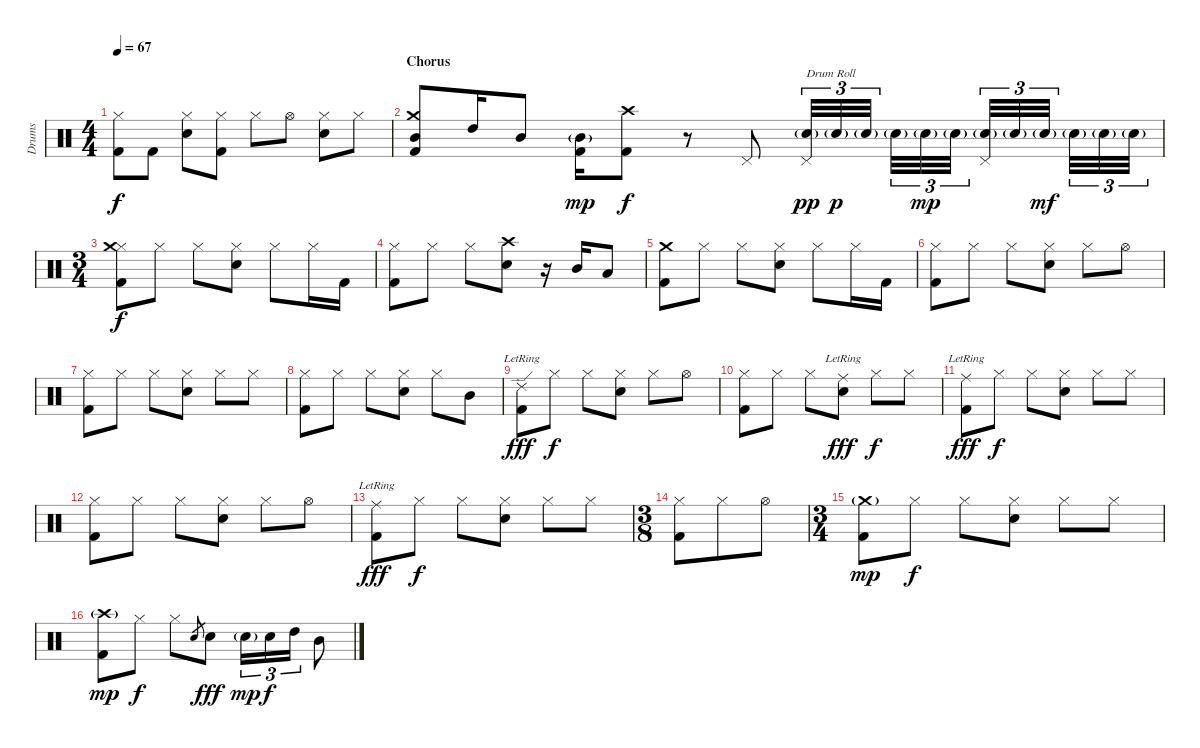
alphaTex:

\track ("Drums" "Drums") {instrument percussion}
\staff {score}
\articulation defaults
\ts (4 4)
\tempo 67
\clef neutral
\ks c
("Hi-Hat (closed)" "Kick (hit) 2").8{dy f} "Kick (hit) 2".8 ("Hi-Hat (closed)" "Snare (hit) 2").8 ("Hi-Hat (closed)" "Kick (hit) 2").8 "Hi-Hat (closed)".8 "Hi-Hat (open)".8 ("Hi-Hat (closed)" "Snare (hit) 2").8 "Hi-Hat (closed)".8 |
\section ("" "Chorus")
("Crash medium (hit)" "Mid Tom (hit)" "Kick (hit) 2").8 "High Tom (hit)".16 "Mid Tom (hit)".8 ("Mid Tom (hit)"{g} "Kick (hit) 2").16{dy mp} ("Crash high (hit)" "Kick (hit) 2").8{dy f} r.8 "Pedal Hi-Hat (hit)".8 ("Pedal Hi-Hat (hit)" "Electric Snare (hit)"{g}).32{tu (3 2) txt "Drum Roll" dy pp} "Electric Snare (hit)"{g}.32{tu (3 2) dy p} "Electric Snare (hit)"{g}.32{tu (3 2)} "Electric Snare (hit)"{g}.32{tu (3 2)} "Electric Snare (hit)"{g}.32{tu (3 2) dy mp} "Electric Snare (hit)"{g}.32{tu (3 2)} ("Pedal Hi-Hat (hit)" "Electric Snare (hit)"{g}).32{tu (3 2)} "Electric Snare (hit)"{g}.32{tu (3 2)} "Electric Snare (hit)"{g}.32{tu (3 2) dy mf} "Electric Snare (hit)"{g}.32{tu (3 2)} "Electric Snare (hit)"{g}.32{tu (3 2)} "Electric Snare (hit)"{g}.32{tu (3 2)} |
\ts (3 4)
("Hi-Hat (closed)" "Crash medium (hit)" "Kick (hit) 2").8{dy f} "Hi-Hat (closed)".8 "Hi-Hat (closed)".8 ("Hi-Hat (closed)" "Snare (hit) 2").8 "Hi-Hat (closed)".8 "Hi-Hat (closed)".16 "Kick (hit) 2".16 |
("Hi-Hat (closed)" "Kick (hit) 2").8 "Hi-Hat (closed)".8 "Hi-Hat (closed)".8 ("Crash high (hit)" "Snare (hit) 2").8 r.16 "Mid Tom (hit)".16 "Low Tom (hit)".8 |
("Crash medium (hit)" "Kick (hit) 2").8 "Hi-Hat (closed)".8 "Hi-Hat (closed)".8 ("Hi-Hat (closed)" "Snare (hit) 2").8 "Hi-Hat (closed)".8 "Hi-Hat (closed)".16 "Kick (hit) 2".16 |
("Hi-Hat (closed)" "Kick (hit) 2").8 "Hi-Hat (closed)".8 "Hi-Hat (closed)".8 ("Hi-Hat (closed)" "Snare (hit) 2").8 "Hi-Hat (closed)".8 "Hi-Hat (open)".8 |
("Hi-Hat (closed)" "Kick (hit) 2").8 "Hi-Hat (closed)".8 "Hi-Hat (closed)".8 ("Hi-Hat (closed)" "Snare (hit) 2").8 "Hi-Hat (closed)".8 "Hi-Hat (closed)".8 |
("Hi-Hat (closed)" "Kick (hit) 2").8 "Hi-Hat (closed)".8 "Hi-Hat (closed)".8 ("Hi-Hat (closed)" "Snare (hit) 2").8 "Hi-Hat (closed)".8 "Mid Tom (hit)".8 |
("Ride (edge) 2"{lr} "Kick (hit) 2").8{dy fff} "Hi-Hat (closed)".8{dy f} "Hi-Hat (closed)".8 ("Hi-Hat (closed)" "Snare (hit) 2").8 "Hi-Hat (closed)".8 "Hi-Hat (open)".8 |
("Hi-Hat (closed)" "Kick (hit) 2").8 "Hi-Hat (closed)".8 "Hi-Hat (closed)".8 ("Ride (middle)"{lr} "Snare (hit) 2").8{dy fff} "Hi-Hat (closed)".8{dy f} "Hi-Hat (closed)".8 |
("Ride (middle)"{lr} "Kick (hit) 2").8{dy fff} "Hi-Hat (closed)".8{dy f} "Hi-Hat (closed)".8 ("Hi-Hat (closed)" "Snare (hit) 2").8 "Hi-Hat (closed)".8 "Hi-Hat (closed)".8 |
("Hi-Hat (closed)" "Kick (hit) 2").8 "Hi-Hat (closed)".8 "Hi-Hat (closed)".8 ("Hi-Hat (closed)" "Snare (hit) 2").8 "Hi-Hat (closed)".8 "Hi-Hat (open)".8 |
("Ride (middle)"{lr} "Kick (hit) 2").8{dy fff} "Hi-Hat (closed)".8{dy f} "Hi-Hat (closed)".8 ("Hi-Hat (closed)" "Snare (hit) 2").8 "Hi-Hat (closed)".8 "Hi-Hat (closed)".8 |
\ts (3 8)
("Hi-Hat (closed)" "Kick (hit) 2").8 "Hi-Hat (closed)".8 "Hi-Hat (open)".8 |
\ts (3 4)
("Crash medium (hit)"{g} "Kick (hit) 2").8{dy mp} "Hi-Hat (closed)".8{dy f} "Hi-Hat (closed)".8 ("Hi-Hat (closed)" "Snare (hit) 2").8 "Hi-Hat (closed)".8 "Hi-Hat (closed)".8 |
("Crash high (hit)"{g} "Kick (hit) 2").8{dy mp} "Hi-Hat (closed)".8{dy f} "Hi-Hat (closed)".8 "Snare (hit) 2".8{gr} "Snare (hit) 2".8{dy fff} "Electric Snare (hit)"{g}.16{tu (3 2) dy mp} "Electric Snare (hit)".16{tu (3 2) dy f} "High Tom (hit)".16{tu (3 2)} "Mid Tom (hit)".8
